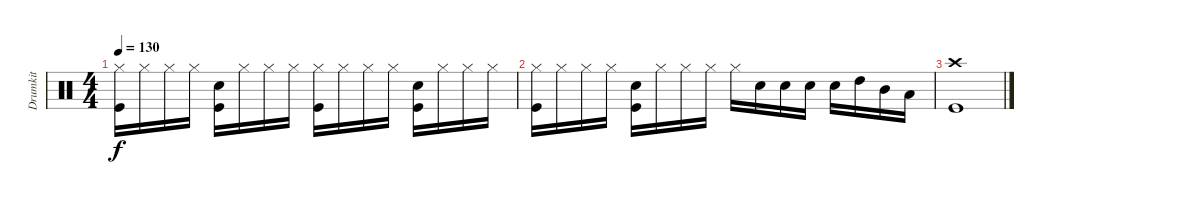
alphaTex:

\track ("Drumkit" "Drumkit") {instrument percussion}
\staff {score}
\articulation defaults
\ts (4 4)
\tempo 130
\clef neutral
\ks c
("Hi-Hat (closed)" "Kick (hit)").16{dy f} "Hi-Hat (closed)".16 "Hi-Hat (closed)".16 "Hi-Hat (closed)".16 ("Snare (hit) 2" "Kick (hit)").16 "Hi-Hat (closed)".16 "Hi-Hat (closed)".16 "Hi-Hat (closed)".16 ("Hi-Hat (closed)" "Kick (hit)").16 "Hi-Hat (closed)".16 "Hi-Hat (closed)".16 "Hi-Hat (closed)".16 ("Snare (hit) 2" "Kick (hit)").16 "Hi-Hat (closed)".16 "Hi-Hat (closed)".16 "Hi-Hat (closed)".16 |
("Hi-Hat (closed)" "Kick (hit)").16 "Hi-Hat (closed)".16 "Hi-Hat (closed)".16 "Hi-Hat (closed)".16 ("Snare (hit) 2" "Kick (hit)").16 "Hi-Hat (closed)".16 "Hi-Hat (closed)".16 "Hi-Hat (closed)".16 "Hi-Hat (closed)".16 "Snare (hit) 2".16 "Snare (hit) 2".16 "Snare (hit) 2".16 "Snare (hit) 2".16 "High Tom (hit)".16 "Mid Tom (hit)".16 "Low Tom (hit)".16 |
("Crash high (hit)" "Kick (hit)").1
